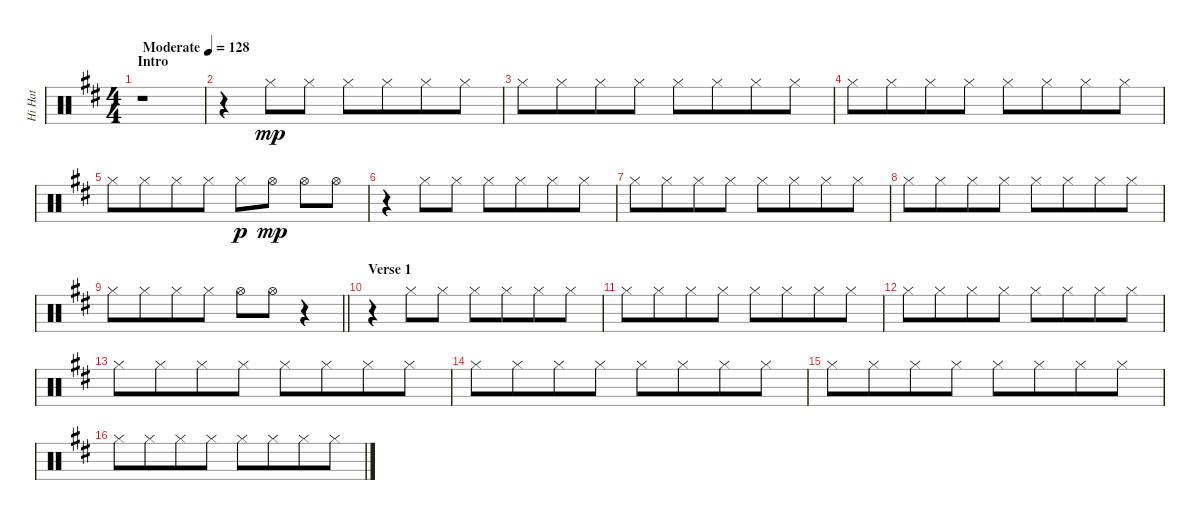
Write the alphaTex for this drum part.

\track ("Hi Hat" "Hi Hat") {instrument percussion}
\staff {score}
\articulation defaults
\ts (4 4)
\section ("" "Intro")
\tempo (128 "Moderate")
\clef neutral
\ks bminor
r.1{dy mp} |
r.4 "Hi-Hat (closed)".8 "Hi-Hat (closed)".8 "Hi-Hat (closed)".8 "Hi-Hat (closed)".8{beam merge} "Hi-Hat (closed)".8 "Hi-Hat (closed)".8 |
"Hi-Hat (closed)".8 "Hi-Hat (closed)".8{beam merge} "Hi-Hat (closed)".8 "Hi-Hat (closed)".8 "Hi-Hat (closed)".8 "Hi-Hat (closed)".8{beam merge} "Hi-Hat (closed)".8 "Hi-Hat (closed)".8 |
"Hi-Hat (closed)".8 "Hi-Hat (closed)".8{beam merge} "Hi-Hat (closed)".8 "Hi-Hat (closed)".8 "Hi-Hat (closed)".8 "Hi-Hat (closed)".8{beam merge} "Hi-Hat (closed)".8 "Hi-Hat (closed)".8 |
"Hi-Hat (closed)".8 "Hi-Hat (closed)".8{beam merge} "Hi-Hat (closed)".8 "Hi-Hat (closed)".8 "Hi-Hat (closed)".8{dy p} "Hi-Hat (open)".8{dy mp} "Hi-Hat (open)".8 "Hi-Hat (open)".8 |
r.4 "Hi-Hat (closed)".8 "Hi-Hat (closed)".8 "Hi-Hat (closed)".8 "Hi-Hat (closed)".8{beam merge} "Hi-Hat (closed)".8 "Hi-Hat (closed)".8 |
"Hi-Hat (closed)".8 "Hi-Hat (closed)".8{beam merge} "Hi-Hat (closed)".8 "Hi-Hat (closed)".8 "Hi-Hat (closed)".8 "Hi-Hat (closed)".8{beam merge} "Hi-Hat (closed)".8 "Hi-Hat (closed)".8 |
"Hi-Hat (closed)".8 "Hi-Hat (closed)".8{beam merge} "Hi-Hat (closed)".8 "Hi-Hat (closed)".8 "Hi-Hat (closed)".8 "Hi-Hat (closed)".8{beam merge} "Hi-Hat (closed)".8 "Hi-Hat (closed)".8 |
\barLineRight lightlight "Hi-Hat (closed)".8 "Hi-Hat (closed)".8{beam merge} "Hi-Hat (closed)".8 "Hi-Hat (closed)".8 "Hi-Hat (open)".8 "Hi-Hat (open)".8
r.4 |
\section ("" "Verse 1")
r.4 "Hi-Hat (closed)".8 "Hi-Hat (closed)".8 "Hi-Hat (closed)".8 "Hi-Hat (closed)".8{beam merge} "Hi-Hat (closed)".8 "Hi-Hat (closed)".8 |
"Hi-Hat (closed)".8 "Hi-Hat (closed)".8{beam merge} "Hi-Hat (closed)".8 "Hi-Hat (closed)".8 "Hi-Hat (closed)".8 "Hi-Hat (closed)".8{beam merge} "Hi-Hat (closed)".8 "Hi-Hat (closed)".8 |
"Hi-Hat (closed)".8 "Hi-Hat (closed)".8{beam merge} "Hi-Hat (closed)".8 "Hi-Hat (closed)".8 "Hi-Hat (closed)".8 "Hi-Hat (closed)".8{beam merge} "Hi-Hat (closed)".8 "Hi-Hat (closed)".8 |
"Hi-Hat (closed)".8 "Hi-Hat (closed)".8{beam merge} "Hi-Hat (closed)".8 "Hi-Hat (closed)".8 "Hi-Hat (closed)".8 "Hi-Hat (closed)".8{beam merge} "Hi-Hat (closed)".8 "Hi-Hat (closed)".8 |
"Hi-Hat (closed)".8 "Hi-Hat (closed)".8{beam merge} "Hi-Hat (closed)".8 "Hi-Hat (closed)".8 "Hi-Hat (closed)".8 "Hi-Hat (closed)".8{beam merge} "Hi-Hat (closed)".8 "Hi-Hat (closed)".8 |
"Hi-Hat (closed)".8 "Hi-Hat (closed)".8{beam merge} "Hi-Hat (closed)".8 "Hi-Hat (closed)".8 "Hi-Hat (closed)".8 "Hi-Hat (closed)".8{beam merge} "Hi-Hat (closed)".8 "Hi-Hat (closed)".8 |
"Hi-Hat (closed)".8 "Hi-Hat (closed)".8{beam merge} "Hi-Hat (closed)".8 "Hi-Hat (closed)".8 "Hi-Hat (closed)".8 "Hi-Hat (closed)".8{beam merge} "Hi-Hat (closed)".8 "Hi-Hat (closed)".8
